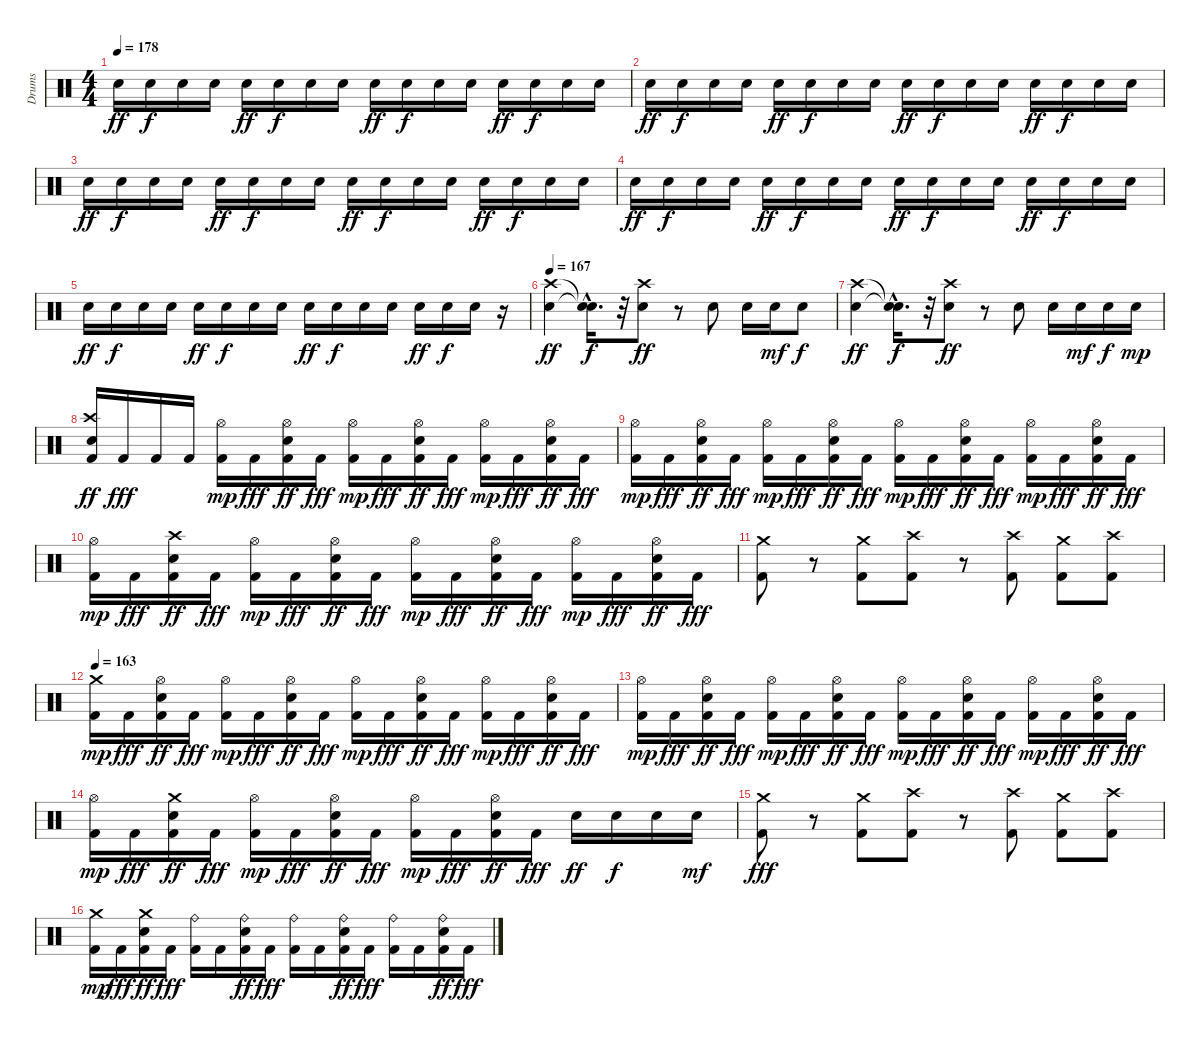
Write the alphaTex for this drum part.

\track ("Drums" "Drums") {instrument percussion}
\staff {score}
\articulation defaults
\ts (4 4)
\tempo 178
\clef neutral
\ks c "Snare (hit) 2".16{dy ff} "Snare (hit) 2".16{dy f} "Snare (hit) 2".16 "Snare (hit) 2".16 "Snare (hit) 2".16{dy ff} "Snare (hit) 2".16{dy f} "Snare (hit) 2".16 "Snare (hit) 2".16 "Snare (hit) 2".16{dy ff} "Snare (hit) 2".16{dy f} "Snare (hit) 2".16 "Snare (hit) 2".16 "Snare (hit) 2".16{dy ff} "Snare (hit) 2".16{dy f} "Snare (hit) 2".16 "Snare (hit) 2".16
|
"Snare (hit) 2".16{dy ff} "Snare (hit) 2".16{dy f} "Snare (hit) 2".16 "Snare (hit) 2".16 "Snare (hit) 2".16{dy ff} "Snare (hit) 2".16{dy f} "Snare (hit) 2".16 "Snare (hit) 2".16 "Snare (hit) 2".16{dy ff} "Snare (hit) 2".16{dy f} "Snare (hit) 2".16 "Snare (hit) 2".16 "Snare (hit) 2".16{dy ff} "Snare (hit) 2".16{dy f} "Snare (hit) 2".16 "Snare (hit) 2".16 |
"Snare (hit) 2".16{dy ff} "Snare (hit) 2".16{dy f} "Snare (hit) 2".16 "Snare (hit) 2".16 "Snare (hit) 2".16{dy ff} "Snare (hit) 2".16{dy f} "Snare (hit) 2".16 "Snare (hit) 2".16 "Snare (hit) 2".16{dy ff} "Snare (hit) 2".16{dy f} "Snare (hit) 2".16 "Snare (hit) 2".16 "Snare (hit) 2".16{dy ff} "Snare (hit) 2".16{dy f} "Snare (hit) 2".16 "Snare (hit) 2".16 |
"Snare (hit) 2".16{dy ff} "Snare (hit) 2".16{dy f} "Snare (hit) 2".16 "Snare (hit) 2".16 "Snare (hit) 2".16{dy ff} "Snare (hit) 2".16{dy f} "Snare (hit) 2".16 "Snare (hit) 2".16 "Snare (hit) 2".16{dy ff} "Snare (hit) 2".16{dy f} "Snare (hit) 2".16 "Snare (hit) 2".16 "Snare (hit) 2".16{dy ff} "Snare (hit) 2".16{dy f} "Snare (hit) 2".16 "Snare (hit) 2".16 |
"Snare (hit) 2".16{dy ff} "Snare (hit) 2".16{dy f} "Snare (hit) 2".16 "Snare (hit) 2".16 "Snare (hit) 2".16{dy ff} "Snare (hit) 2".16{dy f} "Snare (hit) 2".16 "Snare (hit) 2".16 "Snare (hit) 2".16{dy ff} "Snare (hit) 2".16{dy f} "Snare (hit) 2".16 "Snare (hit) 2".16 "Snare (hit) 2".16{dy ff} "Snare (hit) 2".16{dy f} "Snare (hit) 2".16 r.16 |
\tempo 167
("Crash high (hit)" "Snare (hit) 2").4{dy ff} ("Snare (hit)"{hac t} "Snare (hit)"{hac t}).16{d dy f} r.32 ("Crash high (hit)" "Snare (hit) 2").8{dy ff} r.8 "Snare (hit) 2".8 "Snare (hit) 2".16 "Snare (hit) 2".16{dy mf} "Snare (hit) 2".8{dy f} |
("Crash high (hit)" "Snare (hit) 2").4{dy ff} ("Snare (hit)"{hac t} "Snare (hit)"{hac t}).16{d dy f} r.32 ("Crash high (hit)" "Snare (hit) 2").8{dy ff} r.8 "Snare (hit) 2".8 "Snare (hit) 2".16 "Snare (hit) 2".16{dy mf} "Snare (hit) 2".16{dy f} "Snare (hit) 2".16{dy mp} |
("Kick (hit) 2" "Crash high (hit)" "Snare (hit) 2").16{dy ff} "Kick (hit) 2".16{dy fff} "Kick (hit) 2".16 "Kick (hit) 2".16 ("Kick (hit) 2" "Hi-Hat (open)").16{dy mp} "Kick (hit) 2".16{dy fff} ("Kick (hit) 2" "Hi-Hat (open)" "Snare (hit) 2").16{dy ff} "Kick (hit) 2".16{dy fff} ("Kick (hit) 2" "Hi-Hat (open)").16{dy mp} "Kick (hit) 2".16{dy fff} ("Kick (hit) 2" "Hi-Hat (open)" "Snare (hit) 2").16{dy ff} "Kick (hit) 2".16{dy fff} ("Kick (hit) 2" "Hi-Hat (open)").16{dy mp} "Kick (hit) 2".16{dy fff} ("Kick (hit) 2" "Hi-Hat (open)" "Snare (hit) 2").16{dy ff} "Kick (hit) 2".16{dy fff} |
("Kick (hit) 2" "Hi-Hat (open)").16{dy mp} "Kick (hit) 2".16{dy fff} ("Kick (hit) 2" "Hi-Hat (open)" "Snare (hit) 2").16{dy ff} "Kick (hit) 2".16{dy fff} ("Kick (hit) 2" "Hi-Hat (open)").16{dy mp} "Kick (hit) 2".16{dy fff} ("Kick (hit) 2" "Hi-Hat (open)" "Snare (hit) 2").16{dy ff} "Kick (hit) 2".16{dy fff} ("Kick (hit) 2" "Hi-Hat (open)").16{dy mp} "Kick (hit) 2".16{dy fff} ("Kick (hit) 2" "Hi-Hat (open)" "Snare (hit) 2").16{dy ff} "Kick (hit) 2".16{dy fff} ("Kick (hit) 2" "Hi-Hat (open)").16{dy mp} "Kick (hit) 2".16{dy fff} ("Kick (hit) 2" "Hi-Hat (open)" "Snare (hit) 2").16{dy ff} "Kick (hit) 2".16{dy fff} |
("Kick (hit) 2" "Hi-Hat (open)").16{dy mp} "Kick (hit) 2".16{dy fff} ("Kick (hit) 2" "Crash high (hit)" "Snare (hit) 2").16{dy ff} "Kick (hit) 2".16{dy fff} ("Kick (hit) 2" "Hi-Hat (open)").16{dy mp} "Kick (hit) 2".16{dy fff} ("Kick (hit) 2" "Hi-Hat (open)" "Snare (hit) 2").16{dy ff} "Kick (hit) 2".16{dy fff} ("Kick (hit) 2" "Hi-Hat (open)").16{dy mp} "Kick (hit) 2".16{dy fff} ("Kick (hit) 2" "Hi-Hat (open)" "Snare (hit) 2").16{dy ff} "Kick (hit) 2".16{dy fff} ("Kick (hit) 2" "Hi-Hat (open)").16{dy mp} "Kick (hit) 2".16{dy fff} ("Kick (hit) 2" "Hi-Hat (open)" "Snare (hit) 2").16{dy ff} "Kick (hit) 2".16{dy fff} |
("Crash medium (hit)" "Kick (hit) 2").8 r.8 ("Crash medium (hit)" "Kick (hit) 2").8 ("Crash high (hit)" "Kick (hit) 2").8 r.8 ("Crash high (hit)" "Kick (hit) 2").8 ("Crash medium (hit)" "Kick (hit) 2").8 ("Crash high (hit)" "Kick (hit) 2").8 |
\tempo 163
("Kick (hit) 2" "Crash medium (hit)").16{dy mp} "Kick (hit) 2".16{dy fff} ("Kick (hit) 2" "Hi-Hat (open)" "Snare (hit) 2").16{dy ff} "Kick (hit) 2".16{dy fff} ("Kick (hit) 2" "Hi-Hat (open)").16{dy mp} "Kick (hit) 2".16{dy fff} ("Kick (hit) 2" "Hi-Hat (open)" "Snare (hit) 2").16{dy ff} "Kick (hit) 2".16{dy fff} ("Kick (hit) 2" "Hi-Hat (open)").16{dy mp} "Kick (hit) 2".16{dy fff} ("Kick (hit) 2" "Hi-Hat (open)" "Snare (hit) 2").16{dy ff} "Kick (hit) 2".16{dy fff} ("Kick (hit) 2" "Hi-Hat (open)").16{dy mp} "Kick (hit) 2".16{dy fff} ("Kick (hit) 2" "Hi-Hat (open)" "Snare (hit) 2").16{dy ff} "Kick (hit) 2".16{dy fff} |
("Kick (hit) 2" "Hi-Hat (open)").16{dy mp} "Kick (hit) 2".16{dy fff} ("Kick (hit) 2" "Hi-Hat (open)" "Snare (hit) 2").16{dy ff} "Kick (hit) 2".16{dy fff} ("Kick (hit) 2" "Hi-Hat (open)").16{dy mp} "Kick (hit) 2".16{dy fff} ("Kick (hit) 2" "Hi-Hat (open)" "Snare (hit) 2").16{dy ff} "Kick (hit) 2".16{dy fff} ("Kick (hit) 2" "Hi-Hat (open)").16{dy mp} "Kick (hit) 2".16{dy fff} ("Kick (hit) 2" "Hi-Hat (open)" "Snare (hit) 2").16{dy ff} "Kick (hit) 2".16{dy fff} ("Kick (hit) 2" "Hi-Hat (open)").16{dy mp} "Kick (hit) 2".16{dy fff} ("Kick (hit) 2" "Hi-Hat (open)" "Snare (hit) 2").16{dy ff} "Kick (hit) 2".16{dy fff} |
("Kick (hit) 2" "Hi-Hat (open)").16{dy mp} "Kick (hit) 2".16{dy fff} ("Kick (hit) 2" "Crash medium (hit)" "Snare (hit) 2").16{dy ff} "Kick (hit) 2".16{dy fff} ("Kick (hit) 2" "Hi-Hat (open)").16{dy mp} "Kick (hit) 2".16{dy fff} ("Kick (hit) 2" "Hi-Hat (open)" "Snare (hit) 2").16{dy ff} "Kick (hit) 2".16{dy fff} ("Kick (hit) 2" "Hi-Hat (open)").16{dy mp} "Kick (hit) 2".16{dy fff} ("Kick (hit) 2" "Hi-Hat (open)" "Snare (hit) 2").16{dy ff} "Kick (hit) 2".16{dy fff} "Snare (hit) 2".16{dy ff} "Snare (hit) 2".16{dy f} "Snare (hit) 2".16 "Snare (hit) 2".16{dy mf} |
("Crash medium (hit)" "Kick (hit) 2").8{dy fff} r.8 ("Crash medium (hit)" "Kick (hit) 2").8 ("Crash high (hit)" "Kick (hit) 2").8 r.8 ("Crash high (hit)" "Kick (hit) 2").8 ("Crash medium (hit)" "Kick (hit) 2").8 ("Crash high (hit)" "Kick (hit) 2").8 |
("Kick (hit) 2" "Crash medium (hit)").16{dy mp} "Kick (hit) 2".16{dy fff} ("Kick (hit) 2" "Crash medium (hit)" "Snare (hit) 2").16{dy ff} "Kick (hit) 2".16{dy fff} ("Ride (bell)" "Kick (hit) 2").16 "Kick (hit) 2".16 ("Ride (bell)" "Kick (hit) 2" "Snare (hit) 2").16{dy ff} "Kick (hit) 2".16{dy fff} ("Ride (bell)" "Kick (hit) 2").16 "Kick (hit) 2".16 ("Ride (bell)" "Kick (hit) 2" "Snare (hit) 2").16{dy ff} "Kick (hit) 2".16{dy fff} ("Ride (bell)" "Kick (hit) 2").16 "Kick (hit) 2".16 ("Ride (bell)" "Kick (hit) 2" "Snare (hit) 2").16{dy ff} "Kick (hit) 2".16{dy fff}
